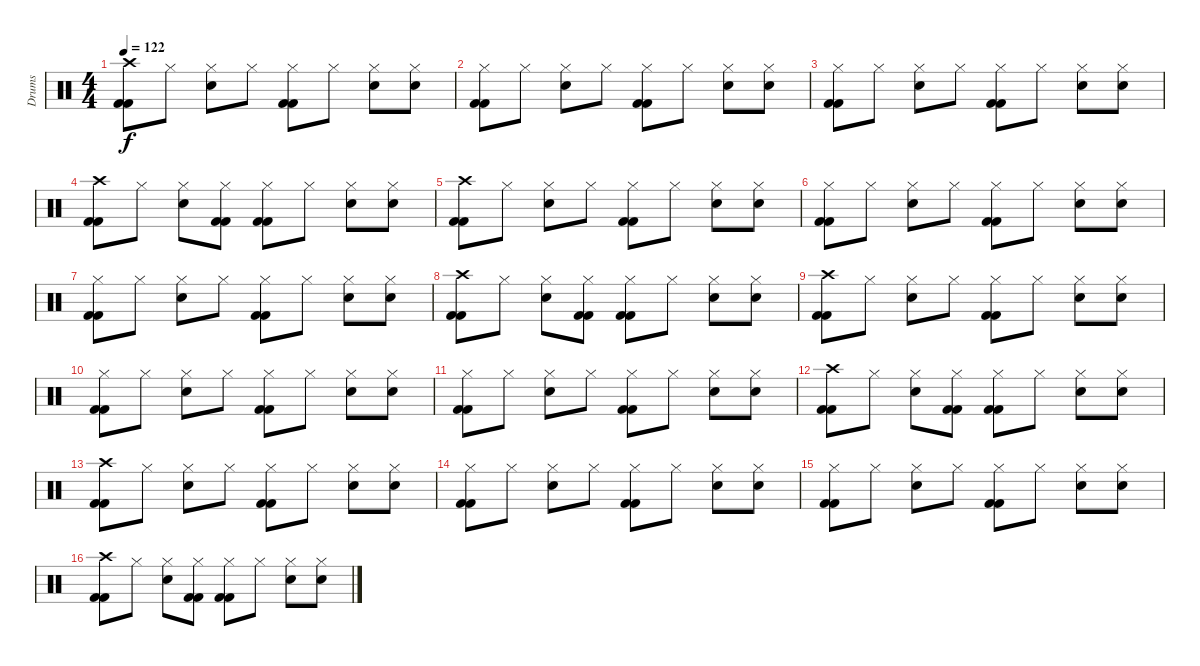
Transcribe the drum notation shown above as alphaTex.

\track ("Drums" "Drums") {instrument percussion}
\staff {score}
\articulation defaults
\ts (4 4)
\tempo 122
\clef neutral
\ks c
("Crash high (hit)" "Kick (hit) 2" "Kick (hit) 2").8{dy f} "Hi-Hat (closed)".8 ("Hi-Hat (closed)" "Snare (hit) 2").8 "Hi-Hat (closed)".8 ("Hi-Hat (closed)" "Kick (hit) 2" "Kick (hit) 2").8 "Hi-Hat (closed)".8 ("Hi-Hat (closed)" "Snare (hit) 2").8 ("Hi-Hat (closed)" "Snare (hit) 2").8 |
("Hi-Hat (closed)" "Kick (hit) 2" "Kick (hit) 2").8 "Hi-Hat (closed)".8 ("Hi-Hat (closed)" "Snare (hit) 2").8 "Hi-Hat (closed)".8 ("Hi-Hat (closed)" "Kick (hit) 2" "Kick (hit) 2").8 "Hi-Hat (closed)".8 ("Hi-Hat (closed)" "Snare (hit) 2").8 ("Hi-Hat (closed)" "Snare (hit) 2").8 |
("Hi-Hat (closed)" "Kick (hit) 2" "Kick (hit) 2").8 "Hi-Hat (closed)".8 ("Hi-Hat (closed)" "Snare (hit) 2").8 "Hi-Hat (closed)".8 ("Hi-Hat (closed)" "Kick (hit) 2" "Kick (hit) 2").8 "Hi-Hat (closed)".8 ("Hi-Hat (closed)" "Snare (hit) 2").8 ("Hi-Hat (closed)" "Snare (hit) 2").8 |
("Crash high (hit)" "Kick (hit) 2" "Kick (hit) 2").8 "Hi-Hat (closed)".8 ("Hi-Hat (closed)" "Snare (hit) 2").8 ("Hi-Hat (closed)" "Kick (hit) 2" "Kick (hit) 2").8 ("Hi-Hat (closed)" "Kick (hit) 2" "Kick (hit) 2").8 "Hi-Hat (closed)".8 ("Hi-Hat (closed)" "Snare (hit) 2").8 ("Hi-Hat (closed)" "Snare (hit) 2").8 |
("Crash high (hit)" "Kick (hit) 2" "Kick (hit) 2").8 "Hi-Hat (closed)".8 ("Hi-Hat (closed)" "Snare (hit) 2").8 "Hi-Hat (closed)".8 ("Hi-Hat (closed)" "Kick (hit) 2" "Kick (hit) 2").8 "Hi-Hat (closed)".8 ("Hi-Hat (closed)" "Snare (hit) 2").8 ("Hi-Hat (closed)" "Snare (hit) 2").8 |
("Hi-Hat (closed)" "Kick (hit) 2" "Kick (hit) 2").8 "Hi-Hat (closed)".8 ("Hi-Hat (closed)" "Snare (hit) 2").8 "Hi-Hat (closed)".8 ("Hi-Hat (closed)" "Kick (hit) 2" "Kick (hit) 2").8 "Hi-Hat (closed)".8 ("Hi-Hat (closed)" "Snare (hit) 2").8 ("Hi-Hat (closed)" "Snare (hit) 2").8 |
("Hi-Hat (closed)" "Kick (hit) 2" "Kick (hit) 2").8 "Hi-Hat (closed)".8 ("Hi-Hat (closed)" "Snare (hit) 2").8 "Hi-Hat (closed)".8 ("Hi-Hat (closed)" "Kick (hit) 2" "Kick (hit) 2").8 "Hi-Hat (closed)".8 ("Hi-Hat (closed)" "Snare (hit) 2").8 ("Hi-Hat (closed)" "Snare (hit) 2").8 |
("Crash high (hit)" "Kick (hit) 2" "Kick (hit) 2").8 "Hi-Hat (closed)".8 ("Hi-Hat (closed)" "Snare (hit) 2").8 ("Hi-Hat (closed)" "Kick (hit) 2" "Kick (hit) 2").8 ("Hi-Hat (closed)" "Kick (hit) 2" "Kick (hit) 2").8 "Hi-Hat (closed)".8 ("Hi-Hat (closed)" "Snare (hit) 2").8 ("Hi-Hat (closed)" "Snare (hit) 2").8 |
("Crash high (hit)" "Kick (hit) 2" "Kick (hit) 2").8 "Hi-Hat (closed)".8 ("Hi-Hat (closed)" "Snare (hit) 2").8 "Hi-Hat (closed)".8 ("Hi-Hat (closed)" "Kick (hit) 2" "Kick (hit) 2").8 "Hi-Hat (closed)".8 ("Hi-Hat (closed)" "Snare (hit) 2").8 ("Hi-Hat (closed)" "Snare (hit) 2").8 |
("Hi-Hat (closed)" "Kick (hit) 2" "Kick (hit) 2").8 "Hi-Hat (closed)".8 ("Hi-Hat (closed)" "Snare (hit) 2").8 "Hi-Hat (closed)".8 ("Hi-Hat (closed)" "Kick (hit) 2" "Kick (hit) 2").8 "Hi-Hat (closed)".8 ("Hi-Hat (closed)" "Snare (hit) 2").8 ("Hi-Hat (closed)" "Snare (hit) 2").8 |
("Hi-Hat (closed)" "Kick (hit) 2" "Kick (hit) 2").8 "Hi-Hat (closed)".8 ("Hi-Hat (closed)" "Snare (hit) 2").8 "Hi-Hat (closed)".8 ("Hi-Hat (closed)" "Kick (hit) 2" "Kick (hit) 2").8 "Hi-Hat (closed)".8 ("Hi-Hat (closed)" "Snare (hit) 2").8 ("Hi-Hat (closed)" "Snare (hit) 2").8 |
("Crash high (hit)" "Kick (hit) 2" "Kick (hit) 2").8 "Hi-Hat (closed)".8 ("Hi-Hat (closed)" "Snare (hit) 2").8 ("Hi-Hat (closed)" "Kick (hit) 2" "Kick (hit) 2").8 ("Hi-Hat (closed)" "Kick (hit) 2" "Kick (hit) 2").8 "Hi-Hat (closed)".8 ("Hi-Hat (closed)" "Snare (hit) 2").8 ("Hi-Hat (closed)" "Snare (hit) 2").8 |
("Crash high (hit)" "Kick (hit) 2" "Kick (hit) 2").8 "Hi-Hat (closed)".8 ("Hi-Hat (closed)" "Snare (hit) 2").8 "Hi-Hat (closed)".8 ("Hi-Hat (closed)" "Kick (hit) 2" "Kick (hit) 2").8 "Hi-Hat (closed)".8 ("Hi-Hat (closed)" "Snare (hit) 2").8 ("Hi-Hat (closed)" "Snare (hit) 2").8 |
("Hi-Hat (closed)" "Kick (hit) 2" "Kick (hit) 2").8 "Hi-Hat (closed)".8 ("Hi-Hat (closed)" "Snare (hit) 2").8 "Hi-Hat (closed)".8 ("Hi-Hat (closed)" "Kick (hit) 2" "Kick (hit) 2").8 "Hi-Hat (closed)".8 ("Hi-Hat (closed)" "Snare (hit) 2").8 ("Hi-Hat (closed)" "Snare (hit) 2").8 |
("Hi-Hat (closed)" "Kick (hit) 2" "Kick (hit) 2").8 "Hi-Hat (closed)".8 ("Hi-Hat (closed)" "Snare (hit) 2").8 "Hi-Hat (closed)".8 ("Hi-Hat (closed)" "Kick (hit) 2" "Kick (hit) 2").8 "Hi-Hat (closed)".8 ("Hi-Hat (closed)" "Snare (hit) 2").8 ("Hi-Hat (closed)" "Snare (hit) 2").8 |
("Crash high (hit)" "Kick (hit) 2" "Kick (hit) 2").8 "Hi-Hat (closed)".8 ("Hi-Hat (closed)" "Snare (hit) 2").8 ("Hi-Hat (closed)" "Kick (hit) 2" "Kick (hit) 2").8 ("Hi-Hat (closed)" "Kick (hit) 2" "Kick (hit) 2").8 "Hi-Hat (closed)".8 ("Hi-Hat (closed)" "Snare (hit) 2").8 ("Hi-Hat (closed)" "Snare (hit) 2").8
